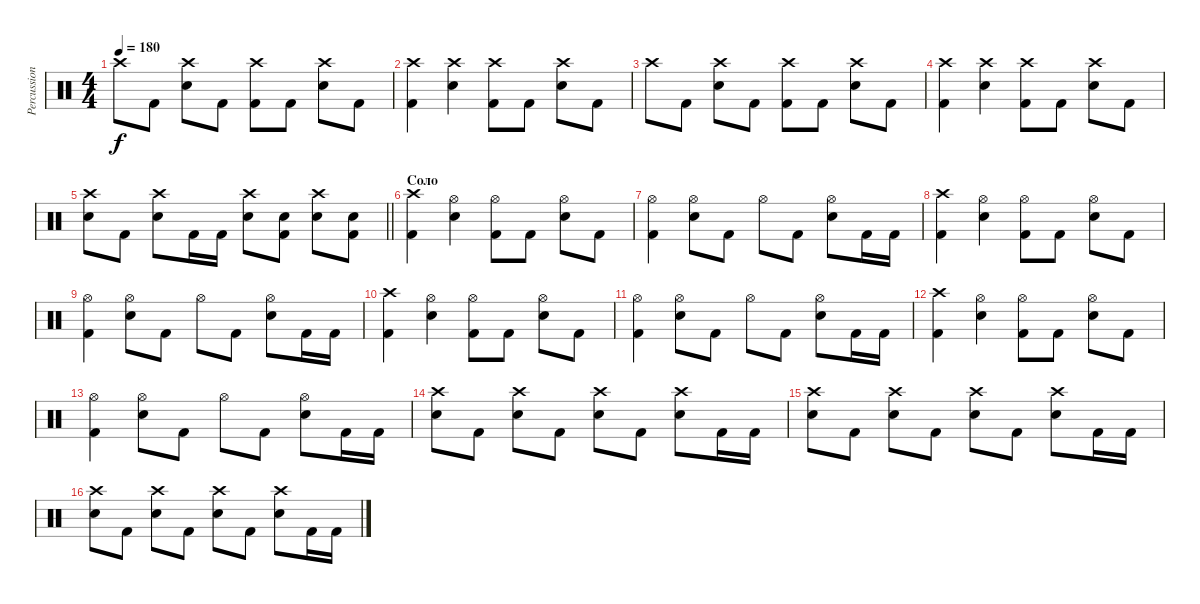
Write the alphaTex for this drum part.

\track ("Percussion" "Percussion") {instrument percussion}
\staff {score}
\articulation defaults
\ts (4 4)
\tempo 180
\clef neutral
\ks c "Crash high (hit)".8{dy f} "Kick (hit) 2".8
("Crash high (hit)" "Snare (hit) 2").8 "Kick (hit) 2".8 ("Crash high (hit)" "Kick (hit) 2").8 "Kick (hit) 2".8 ("Crash high (hit)" "Snare (hit) 2").8 "Kick (hit) 2".8 |
("Crash high (hit)" "Kick (hit) 2").4 ("Crash high (hit)" "Snare (hit) 2").4 ("Crash high (hit)" "Kick (hit) 2").8 "Kick (hit) 2".8 ("Crash high (hit)" "Snare (hit) 2").8 "Kick (hit) 2".8 |
"Crash high (hit)".8 "Kick (hit) 2".8 ("Crash high (hit)" "Snare (hit) 2").8 "Kick (hit) 2".8 ("Crash high (hit)" "Kick (hit) 2").8 "Kick (hit) 2".8 ("Crash high (hit)" "Snare (hit) 2").8 "Kick (hit) 2".8 |
("Crash high (hit)" "Kick (hit) 2").4 ("Crash high (hit)" "Snare (hit) 2").4 ("Crash high (hit)" "Kick (hit) 2").8 "Kick (hit) 2".8 ("Crash high (hit)" "Snare (hit) 2").8 "Kick (hit) 2".8 |
\barLineRight lightlight
("Crash high (hit)" "Snare (hit) 2").8 "Kick (hit) 2".8 ("Crash high (hit)" "Snare (hit) 2").8 "Kick (hit) 2".16 "Kick (hit) 2".16 ("Crash high (hit)" "Snare (hit) 2").8 ("Snare (hit) 2" "Kick (hit) 2").8 ("Crash high (hit)" "Snare (hit) 2").8 ("Snare (hit) 2" "Kick (hit) 2").8 |
\section ("" "Соло")
("Crash high (hit)" "Kick (hit) 2").4 ("Hi-Hat (open)" "Snare (hit) 2").4 ("Hi-Hat (open)" "Kick (hit) 2").8 "Kick (hit) 2".8 ("Hi-Hat (open)" "Snare (hit) 2").8 "Kick (hit) 2".8 |
("Hi-Hat (open)" "Kick (hit) 2").4 ("Hi-Hat (open)" "Snare (hit) 2").8 "Kick (hit) 2".8 "Hi-Hat (open)".8 "Kick (hit) 2".8 ("Hi-Hat (open)" "Snare (hit) 2").8 "Kick (hit) 2".16 "Kick (hit) 2".16 |
("Crash high (hit)" "Kick (hit) 2").4 ("Hi-Hat (open)" "Snare (hit) 2").4 ("Hi-Hat (open)" "Kick (hit) 2").8 "Kick (hit) 2".8 ("Hi-Hat (open)" "Snare (hit) 2").8 "Kick (hit) 2".8 |
("Hi-Hat (open)" "Kick (hit) 2").4 ("Hi-Hat (open)" "Snare (hit) 2").8 "Kick (hit) 2".8 "Hi-Hat (open)".8 "Kick (hit) 2".8 ("Hi-Hat (open)" "Snare (hit) 2").8 "Kick (hit) 2".16 "Kick (hit) 2".16 |
("Crash high (hit)" "Kick (hit) 2").4 ("Hi-Hat (open)" "Snare (hit) 2").4 ("Hi-Hat (open)" "Kick (hit) 2").8 "Kick (hit) 2".8 ("Hi-Hat (open)" "Snare (hit) 2").8 "Kick (hit) 2".8 |
("Hi-Hat (open)" "Kick (hit) 2").4 ("Hi-Hat (open)" "Snare (hit) 2").8 "Kick (hit) 2".8 "Hi-Hat (open)".8 "Kick (hit) 2".8 ("Hi-Hat (open)" "Snare (hit) 2").8 "Kick (hit) 2".16 "Kick (hit) 2".16 |
("Crash high (hit)" "Kick (hit) 2").4 ("Hi-Hat (open)" "Snare (hit) 2").4 ("Hi-Hat (open)" "Kick (hit) 2").8 "Kick (hit) 2".8 ("Hi-Hat (open)" "Snare (hit) 2").8 "Kick (hit) 2".8 |
("Hi-Hat (open)" "Kick (hit) 2").4 ("Hi-Hat (open)" "Snare (hit) 2").8 "Kick (hit) 2".8 "Hi-Hat (open)".8 "Kick (hit) 2".8 ("Hi-Hat (open)" "Snare (hit) 2").8 "Kick (hit) 2".16 "Kick (hit) 2".16 |
("Crash high (hit)" "Snare (hit) 2").8 "Kick (hit) 2".8 ("Crash high (hit)" "Snare (hit) 2").8 "Kick (hit) 2".8 ("Crash high (hit)" "Snare (hit) 2").8 "Kick (hit) 2".8 ("Crash high (hit)" "Snare (hit) 2").8 "Kick (hit) 2".16 "Kick (hit) 2".16 |
("Crash high (hit)" "Snare (hit) 2").8 "Kick (hit) 2".8 ("Crash high (hit)" "Snare (hit) 2").8 "Kick (hit) 2".8 ("Crash high (hit)" "Snare (hit) 2").8 "Kick (hit) 2".8 ("Crash high (hit)" "Snare (hit) 2").8 "Kick (hit) 2".16 "Kick (hit) 2".16 |
("Crash high (hit)" "Snare (hit) 2").8 "Kick (hit) 2".8 ("Crash high (hit)" "Snare (hit) 2").8 "Kick (hit) 2".8 ("Crash high (hit)" "Snare (hit) 2").8 "Kick (hit) 2".8 ("Crash high (hit)" "Snare (hit) 2").8 "Kick (hit) 2".16 "Kick (hit) 2".16
